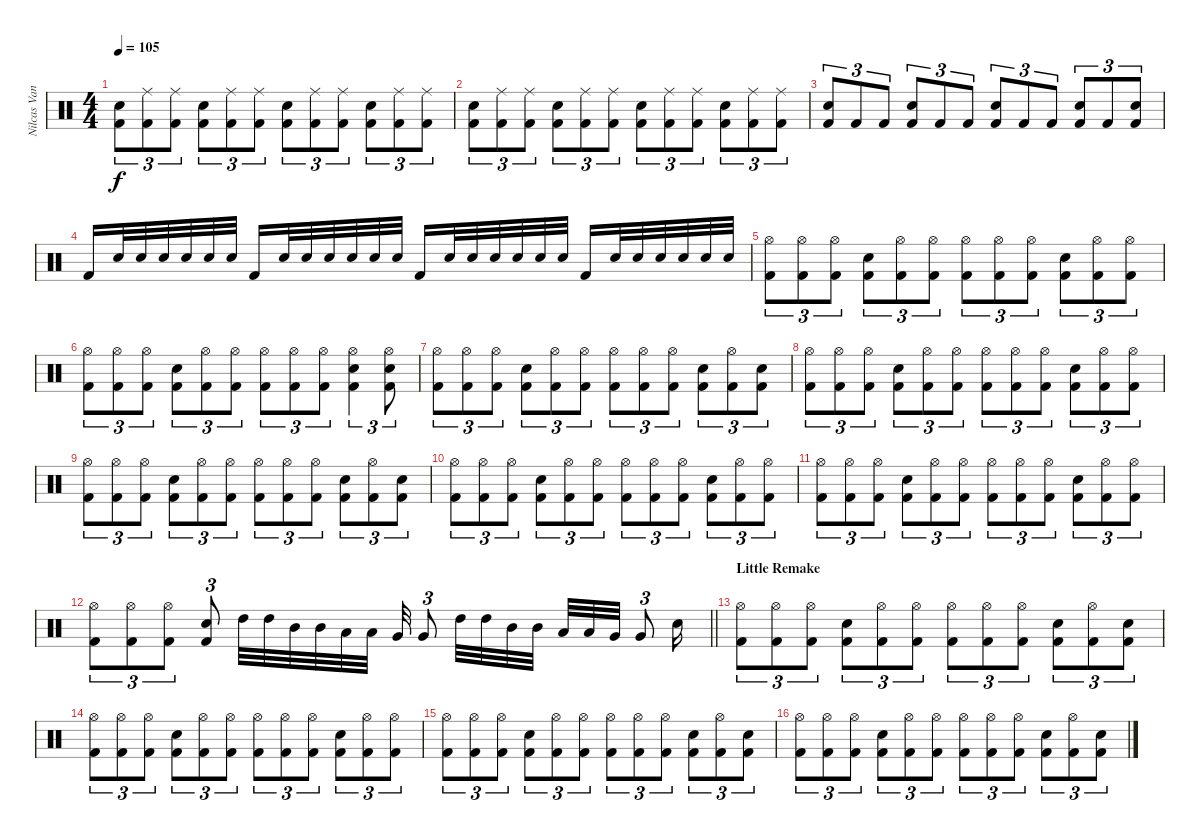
\track ("Nilcas Vant" "Nilcas Van") {instrument percussion}
\staff {score}
\articulation defaults
\ts (4 4)
\tempo 105
\clef neutral
\ks c
("Electric Snare (hit)" "Kick (hit) 2").8{tu (3 2) dy f} ("Ride (middle)" "Kick (hit) 2").8{tu (3 2)} ("Ride (middle)" "Kick (hit) 2").8{tu (3 2)} ("Electric Snare (hit)" "Kick (hit) 2").8{tu (3 2)} ("Ride (middle)" "Kick (hit) 2").8{tu (3 2)} ("Ride (middle)" "Kick (hit) 2").8{tu (3 2)} ("Electric Snare (hit)" "Kick (hit) 2").8{tu (3 2)} ("Ride (middle)" "Kick (hit) 2").8{tu (3 2)} ("Ride (middle)" "Kick (hit) 2").8{tu (3 2)} ("Electric Snare (hit)" "Kick (hit) 2").8{tu (3 2)} ("Ride (middle)" "Kick (hit) 2").8{tu (3 2)} ("Ride (middle)" "Kick (hit) 2").8{tu (3 2)} |
("Electric Snare (hit)" "Kick (hit) 2").8{tu (3 2)} ("Ride (middle)" "Kick (hit) 2").8{tu (3 2)} ("Ride (middle)" "Kick (hit) 2").8{tu (3 2)} ("Electric Snare (hit)" "Kick (hit) 2").8{tu (3 2)} ("Ride (middle)" "Kick (hit) 2").8{tu (3 2)} ("Ride (middle)" "Kick (hit) 2").8{tu (3 2)} ("Electric Snare (hit)" "Kick (hit) 2").8{tu (3 2)} ("Ride (middle)" "Kick (hit) 2").8{tu (3 2)} ("Ride (middle)" "Kick (hit) 2").8{tu (3 2)} ("Electric Snare (hit)" "Kick (hit) 2").8{tu (3 2)} ("Ride (middle)" "Kick (hit) 2").8{tu (3 2)} ("Ride (middle)" "Kick (hit) 2").8{tu (3 2)} |
("Electric Snare (hit)" "Kick (hit) 2").8{tu (3 2)} "Kick (hit) 2".8{tu (3 2)} "Kick (hit) 2".8{tu (3 2)} ("Electric Snare (hit)" "Kick (hit) 2").8{tu (3 2)} "Kick (hit) 2".8{tu (3 2)} "Kick (hit) 2".8{tu (3 2)} ("Electric Snare (hit)" "Kick (hit) 2").8{tu (3 2)} "Kick (hit) 2".8{tu (3 2)} "Kick (hit) 2".8{tu (3 2)} ("Electric Snare (hit)" "Kick (hit) 2").8{tu (3 2)} "Kick (hit) 2".8{tu (3 2)} ("Electric Snare (hit)" "Kick (hit) 2").8{tu (3 2)} |
"Kick (hit) 2".16 "Electric Snare (hit)".32 "Electric Snare (hit)".32 "Electric Snare (hit)".32 "Electric Snare (hit)".32 "Electric Snare (hit)".32 "Electric Snare (hit)".32 "Kick (hit) 2".16 "Electric Snare (hit)".32 "Electric Snare (hit)".32 "Electric Snare (hit)".32 "Electric Snare (hit)".32 "Electric Snare (hit)".32 "Electric Snare (hit)".32 "Kick (hit) 2".16 "Electric Snare (hit)".32 "Electric Snare (hit)".32 "Electric Snare (hit)".32 "Electric Snare (hit)".32 "Electric Snare (hit)".32 "Electric Snare (hit)".32 "Kick (hit) 2".16 "Electric Snare (hit)".32 "Electric Snare (hit)".32 "Electric Snare (hit)".32 "Electric Snare (hit)".32 "Electric Snare (hit)".32 "Electric Snare (hit)".32 |
("Hi-Hat (open)" "Kick (hit) 2").8{tu (3 2)} ("Hi-Hat (open)" "Kick (hit) 2").8{tu (3 2)} ("Hi-Hat (open)" "Kick (hit) 2").8{tu (3 2)} ("Electric Snare (hit)" "Kick (hit) 2").8{tu (3 2)} ("Hi-Hat (open)" "Kick (hit) 2").8{tu (3 2)} ("Hi-Hat (open)" "Kick (hit) 2").8{tu (3 2)} ("Hi-Hat (open)" "Kick (hit) 2").8{tu (3 2)} ("Hi-Hat (open)" "Kick (hit) 2").8{tu (3 2)} ("Hi-Hat (open)" "Kick (hit) 2").8{tu (3 2)} ("Electric Snare (hit)" "Kick (hit) 2").8{tu (3 2)} ("Hi-Hat (open)" "Kick (hit) 2").8{tu (3 2)} ("Hi-Hat (open)" "Kick (hit) 2").8{tu (3 2)} |
("Hi-Hat (open)" "Kick (hit) 2").8{tu (3 2)} ("Hi-Hat (open)" "Kick (hit) 2").8{tu (3 2)} ("Hi-Hat (open)" "Kick (hit) 2").8{tu (3 2)} ("Electric Snare (hit)" "Kick (hit) 2").8{tu (3 2)} ("Hi-Hat (open)" "Kick (hit) 2").8{tu (3 2)} ("Hi-Hat (open)" "Kick (hit) 2").8{tu (3 2)} ("Hi-Hat (open)" "Kick (hit) 2").8{tu (3 2)} ("Hi-Hat (open)" "Kick (hit) 2").8{tu (3 2)} ("Hi-Hat (open)" "Kick (hit) 2").8{tu (3 2)} ("Hi-Hat (open)" "Electric Snare (hit)" "Kick (hit) 2").4{tu (3 2)} ("Hi-Hat (open)" "Electric Snare (hit)" "Kick (hit) 2").8{tu (3 2)} |
("Hi-Hat (open)" "Kick (hit) 2").8{tu (3 2)} ("Hi-Hat (open)" "Kick (hit) 2").8{tu (3 2)} ("Hi-Hat (open)" "Kick (hit) 2").8{tu (3 2)} ("Electric Snare (hit)" "Kick (hit) 2").8{tu (3 2)} ("Hi-Hat (open)" "Kick (hit) 2").8{tu (3 2)} ("Hi-Hat (open)" "Kick (hit) 2").8{tu (3 2)} ("Hi-Hat (open)" "Kick (hit) 2").8{tu (3 2)} ("Hi-Hat (open)" "Kick (hit) 2").8{tu (3 2)} ("Hi-Hat (open)" "Kick (hit) 2").8{tu (3 2)} ("Electric Snare (hit)" "Kick (hit) 2").8{tu (3 2)} ("Hi-Hat (open)" "Kick (hit) 2").8{tu (3 2)} ("Electric Snare (hit)" "Kick (hit) 2").8{tu (3 2)} |
("Hi-Hat (open)" "Kick (hit) 2").8{tu (3 2)} ("Hi-Hat (open)" "Kick (hit) 2").8{tu (3 2)} ("Hi-Hat (open)" "Kick (hit) 2").8{tu (3 2)} ("Electric Snare (hit)" "Kick (hit) 2").8{tu (3 2)} ("Hi-Hat (open)" "Kick (hit) 2").8{tu (3 2)} ("Hi-Hat (open)" "Kick (hit) 2").8{tu (3 2)} ("Hi-Hat (open)" "Kick (hit) 2").8{tu (3 2)} ("Hi-Hat (open)" "Kick (hit) 2").8{tu (3 2)} ("Hi-Hat (open)" "Kick (hit) 2").8{tu (3 2)} ("Electric Snare (hit)" "Kick (hit) 2").8{tu (3 2)} ("Hi-Hat (open)" "Kick (hit) 2").8{tu (3 2)} ("Hi-Hat (open)" "Kick (hit) 2").8{tu (3 2)} |
("Hi-Hat (open)" "Kick (hit) 2").8{tu (3 2)} ("Hi-Hat (open)" "Kick (hit) 2").8{tu (3 2)} ("Hi-Hat (open)" "Kick (hit) 2").8{tu (3 2)} ("Electric Snare (hit)" "Kick (hit) 2").8{tu (3 2)} ("Hi-Hat (open)" "Kick (hit) 2").8{tu (3 2)} ("Hi-Hat (open)" "Kick (hit) 2").8{tu (3 2)} ("Hi-Hat (open)" "Kick (hit) 2").8{tu (3 2)} ("Hi-Hat (open)" "Kick (hit) 2").8{tu (3 2)} ("Hi-Hat (open)" "Kick (hit) 2").8{tu (3 2)} ("Electric Snare (hit)" "Kick (hit) 2").8{tu (3 2)} ("Hi-Hat (open)" "Kick (hit) 2").8{tu (3 2)} ("Electric Snare (hit)" "Kick (hit) 2").8{tu (3 2)} |
("Hi-Hat (open)" "Kick (hit) 2").8{tu (3 2)} ("Hi-Hat (open)" "Kick (hit) 2").8{tu (3 2)} ("Hi-Hat (open)" "Kick (hit) 2").8{tu (3 2)} ("Electric Snare (hit)" "Kick (hit) 2").8{tu (3 2)} ("Hi-Hat (open)" "Kick (hit) 2").8{tu (3 2)} ("Hi-Hat (open)" "Kick (hit) 2").8{tu (3 2)} ("Hi-Hat (open)" "Kick (hit) 2").8{tu (3 2)} ("Hi-Hat (open)" "Kick (hit) 2").8{tu (3 2)} ("Hi-Hat (open)" "Kick (hit) 2").8{tu (3 2)} ("Electric Snare (hit)" "Kick (hit) 2").8{tu (3 2)} ("Hi-Hat (open)" "Kick (hit) 2").8{tu (3 2)} ("Hi-Hat (open)" "Kick (hit) 2").8{tu (3 2)} |
("Hi-Hat (open)" "Kick (hit) 2").8{tu (3 2)} ("Hi-Hat (open)" "Kick (hit) 2").8{tu (3 2)} ("Hi-Hat (open)" "Kick (hit) 2").8{tu (3 2)} ("Electric Snare (hit)" "Kick (hit) 2").8{tu (3 2)} ("Hi-Hat (open)" "Kick (hit) 2").8{tu (3 2)} ("Hi-Hat (open)" "Kick (hit) 2").8{tu (3 2)} ("Hi-Hat (open)" "Kick (hit) 2").8{tu (3 2)} ("Hi-Hat (open)" "Kick (hit) 2").8{tu (3 2)} ("Hi-Hat (open)" "Kick (hit) 2").8{tu (3 2)} ("Electric Snare (hit)" "Kick (hit) 2").8{tu (3 2)} ("Hi-Hat (open)" "Kick (hit) 2").8{tu (3 2)} ("Hi-Hat (open)" "Kick (hit) 2").8{tu (3 2)} |
\barLineRight lightlight
("Hi-Hat (open)" "Kick (hit) 2").8{tu (3 2)} ("Hi-Hat (open)" "Kick (hit) 2").8{tu (3 2)} ("Hi-Hat (open)" "Kick (hit) 2").8{tu (3 2)} ("Electric Snare (hit)" "Kick (hit) 2").8{tu (3 2)} "High Tom (hit)".32 "High Tom (hit)".32 "Mid Tom (hit)".32 "Mid Tom (hit)".32 "Low Tom (hit)".32 "Low Tom (hit)".32 "Very Low Tom (hit)".32 "Very Low Tom (hit)".8{tu (3 2)} "High Tom (hit)".32 "High Tom (hit)".32 "Mid Tom (hit)".32 "Mid Tom (hit)".32 "Low Tom (hit)".32 "Low Tom (hit)".32 "Very Low Tom (hit)".32 "Very Low Tom (hit)".8{tu (3 2)} "Electric Snare (hit)".16 |
\section ("" "Little Remake")
("Hi-Hat (open)" "Kick (hit) 2").8{tu (3 2)} ("Hi-Hat (open)" "Kick (hit) 2").8{tu (3 2)} ("Hi-Hat (open)" "Kick (hit) 2").8{tu (3 2)} ("Electric Snare (hit)" "Kick (hit) 2").8{tu (3 2)} ("Hi-Hat (open)" "Kick (hit) 2").8{tu (3 2)} ("Hi-Hat (open)" "Kick (hit) 2").8{tu (3 2)} ("Hi-Hat (open)" "Kick (hit) 2").8{tu (3 2)} ("Hi-Hat (open)" "Kick (hit) 2").8{tu (3 2)} ("Hi-Hat (open)" "Kick (hit) 2").8{tu (3 2)} ("Electric Snare (hit)" "Kick (hit) 2").8{tu (3 2)} ("Hi-Hat (open)" "Kick (hit) 2").8{tu (3 2)} ("Electric Snare (hit)" "Kick (hit) 2").8{tu (3 2)} |
("Hi-Hat (open)" "Kick (hit) 2").8{tu (3 2)} ("Hi-Hat (open)" "Kick (hit) 2").8{tu (3 2)} ("Hi-Hat (open)" "Kick (hit) 2").8{tu (3 2)} ("Electric Snare (hit)" "Kick (hit) 2").8{tu (3 2)} ("Hi-Hat (open)" "Kick (hit) 2").8{tu (3 2)} ("Hi-Hat (open)" "Kick (hit) 2").8{tu (3 2)} ("Hi-Hat (open)" "Kick (hit) 2").8{tu (3 2)} ("Hi-Hat (open)" "Kick (hit) 2").8{tu (3 2)} ("Hi-Hat (open)" "Kick (hit) 2").8{tu (3 2)} ("Electric Snare (hit)" "Kick (hit) 2").8{tu (3 2)} ("Hi-Hat (open)" "Kick (hit) 2").8{tu (3 2)} ("Hi-Hat (open)" "Kick (hit) 2").8{tu (3 2)} |
("Hi-Hat (open)" "Kick (hit) 2").8{tu (3 2)} ("Hi-Hat (open)" "Kick (hit) 2").8{tu (3 2)} ("Hi-Hat (open)" "Kick (hit) 2").8{tu (3 2)} ("Electric Snare (hit)" "Kick (hit) 2").8{tu (3 2)} ("Hi-Hat (open)" "Kick (hit) 2").8{tu (3 2)} ("Hi-Hat (open)" "Kick (hit) 2").8{tu (3 2)} ("Hi-Hat (open)" "Kick (hit) 2").8{tu (3 2)} ("Hi-Hat (open)" "Kick (hit) 2").8{tu (3 2)} ("Hi-Hat (open)" "Kick (hit) 2").8{tu (3 2)} ("Electric Snare (hit)" "Kick (hit) 2").8{tu (3 2)} ("Hi-Hat (open)" "Kick (hit) 2").8{tu (3 2)} ("Electric Snare (hit)" "Kick (hit) 2").8{tu (3 2)} |
("Hi-Hat (open)" "Kick (hit) 2").8{tu (3 2)} ("Hi-Hat (open)" "Kick (hit) 2").8{tu (3 2)} ("Hi-Hat (open)" "Kick (hit) 2").8{tu (3 2)} ("Electric Snare (hit)" "Kick (hit) 2").8{tu (3 2)} ("Hi-Hat (open)" "Kick (hit) 2").8{tu (3 2)} ("Hi-Hat (open)" "Kick (hit) 2").8{tu (3 2)} ("Hi-Hat (open)" "Kick (hit) 2").8{tu (3 2)} ("Hi-Hat (open)" "Kick (hit) 2").8{tu (3 2)} ("Hi-Hat (open)" "Kick (hit) 2").8{tu (3 2)} ("Electric Snare (hit)" "Kick (hit) 2").8{tu (3 2)} ("Hi-Hat (open)" "Kick (hit) 2").8{tu (3 2)} ("Electric Snare (hit)" "Kick (hit) 2").8{tu (3 2)}
